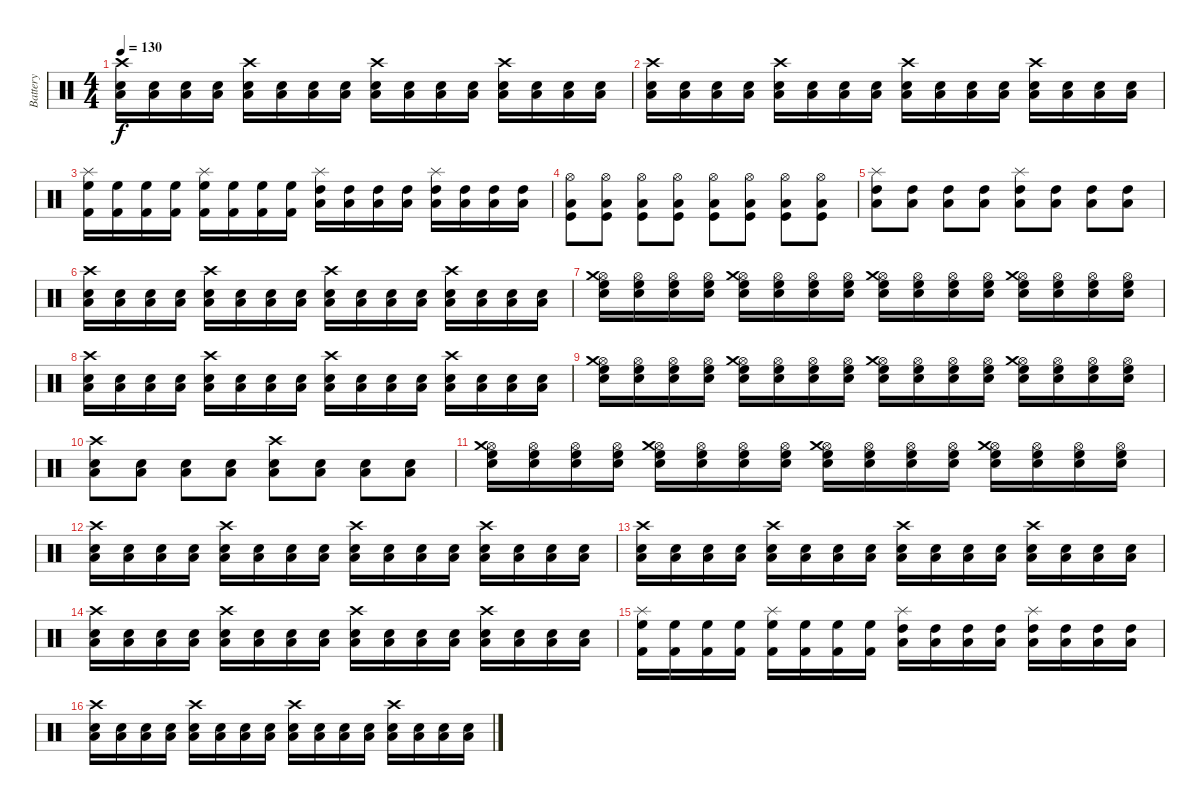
\track ("Battery" "Battery") {instrument percussion}
\staff {score}
\articulation defaults
\ts (4 4)
\tempo 130
\clef neutral
\ks c
("Low Floor Tom (hit)" "Electric Snare (hit)" "Crash high (hit)").16{dy f} ("Low Floor Tom (hit)" "Electric Snare (hit)").16 ("Low Floor Tom (hit)" "Electric Snare (hit)").16 ("Low Floor Tom (hit)" "Electric Snare (hit)").16 ("Low Floor Tom (hit)" "Electric Snare (hit)" "Crash high (hit)").16 ("Low Floor Tom (hit)" "Electric Snare (hit)").16 ("Low Floor Tom (hit)" "Electric Snare (hit)").16 ("Low Floor Tom (hit)" "Electric Snare (hit)").16 ("Snare (hit) 2" "Low Tom (hit)" "Crash high (hit)").16 ("Snare (hit) 2" "Low Tom (hit)").16 ("Snare (hit) 2" "Low Tom (hit)").16 ("Snare (hit) 2" "Low Tom (hit)").16 ("Snare (hit) 2" "Low Tom (hit)" "Crash high (hit)").16 ("Snare (hit) 2" "Low Tom (hit)").16 ("Snare (hit) 2" "Low Tom (hit)").16 ("Snare (hit) 2" "Low Tom (hit)").16 |
("Snare (hit) 2" "Low Tom (hit)" "Crash high (hit)").16 ("Snare (hit) 2" "Low Tom (hit)").16 ("Snare (hit) 2" "Low Tom (hit)").16 ("Snare (hit) 2" "Low Tom (hit)").16 ("Snare (hit) 2" "Low Tom (hit)" "Crash high (hit)").16 ("Snare (hit) 2" "Low Tom (hit)").16 ("Snare (hit) 2" "Low Tom (hit)").16 ("Snare (hit) 2" "Low Tom (hit)").16 ("Low Floor Tom (hit)" "Electric Snare (hit)" "Crash high (hit)").16 ("Low Floor Tom (hit)" "Electric Snare (hit)").16 ("Low Floor Tom (hit)" "Electric Snare (hit)").16 ("Low Floor Tom (hit)" "Electric Snare (hit)").16 ("Low Floor Tom (hit)" "Electric Snare (hit)" "Crash high (hit)").16 ("Low Floor Tom (hit)" "Electric Snare (hit)").16 ("Low Floor Tom (hit)" "Electric Snare (hit)").16 ("Low Floor Tom (hit)" "Electric Snare (hit)").16 |
("Kick (hit) 2" "High Floor Tom (hit)" "Splash (hit)").16 ("Kick (hit) 2" "High Floor Tom (hit)").16 ("Kick (hit) 2" "High Floor Tom (hit)").16 ("Kick (hit) 2" "High Floor Tom (hit)").16 ("Kick (hit) 2" "High Floor Tom (hit)" "Splash (hit)").16 ("Kick (hit) 2" "High Floor Tom (hit)").16 ("Kick (hit) 2" "High Floor Tom (hit)").16 ("Kick (hit) 2" "High Floor Tom (hit)").16 ("Low Floor Tom (hit)" "High Tom (hit)" "Splash (hit)").16 ("Low Floor Tom (hit)" "High Tom (hit)").16 ("Low Floor Tom (hit)" "High Tom (hit)").16 ("Low Floor Tom (hit)" "High Tom (hit)").16 ("Low Floor Tom (hit)" "High Tom (hit)" "Splash (hit)").16 ("Low Floor Tom (hit)" "High Tom (hit)").16 ("Low Floor Tom (hit)" "High Tom (hit)").16 ("Low Floor Tom (hit)" "High Tom (hit)").16 |
("Kick (hit)" "Low Tom (hit)" "Hi-Hat (open)").8 ("Kick (hit)" "Low Tom (hit)" "Hi-Hat (open)").8 ("Kick (hit)" "Low Tom (hit)" "Hi-Hat (open)").8 ("Kick (hit)" "Low Tom (hit)" "Hi-Hat (open)").8 ("Kick (hit)" "Low Tom (hit)" "Hi-Hat (open)").8 ("Kick (hit)" "Low Tom (hit)" "Hi-Hat (open)").8 ("Kick (hit)" "Low Tom (hit)" "Hi-Hat (open)").8 ("Kick (hit)" "Low Tom (hit)" "Hi-Hat (open)").8 |
("Low Floor Tom (hit)" "High Tom (hit)" "Splash (hit)").8 ("Low Floor Tom (hit)" "High Tom (hit)").8 ("Low Floor Tom (hit)" "High Tom (hit)").8 ("Low Floor Tom (hit)" "High Tom (hit)").8 ("Low Floor Tom (hit)" "High Tom (hit)" "Splash (hit)").8 ("Low Floor Tom (hit)" "High Tom (hit)").8 ("Low Floor Tom (hit)" "High Tom (hit)").8 ("Low Floor Tom (hit)" "High Tom (hit)").8 |
("Snare (hit) 2" "Low Tom (hit)" "Crash high (hit)").16 ("Snare (hit) 2" "Low Tom (hit)").16 ("Snare (hit) 2" "Low Tom (hit)").16 ("Snare (hit) 2" "Low Tom (hit)").16 ("Snare (hit) 2" "Low Tom (hit)" "Crash high (hit)").16 ("Snare (hit) 2" "Low Tom (hit)").16 ("Snare (hit) 2" "Low Tom (hit)").16 ("Snare (hit) 2" "Low Tom (hit)").16 ("Low Floor Tom (hit)" "Electric Snare (hit)" "Crash high (hit)").16 ("Low Floor Tom (hit)" "Electric Snare (hit)").16 ("Low Floor Tom (hit)" "Electric Snare (hit)").16 ("Low Floor Tom (hit)" "Electric Snare (hit)").16 ("Low Floor Tom (hit)" "Electric Snare (hit)" "Crash high (hit)").16 ("Low Floor Tom (hit)" "Electric Snare (hit)").16 ("Low Floor Tom (hit)" "Electric Snare (hit)").16 ("Low Floor Tom (hit)" "Electric Snare (hit)").16 |
("Electric Snare (hit)" "High Floor Tom (hit)" "Hi-Hat (open)" "Crash medium (hit)").16 ("Electric Snare (hit)" "High Floor Tom (hit)" "Hi-Hat (open)").16 ("Electric Snare (hit)" "High Floor Tom (hit)" "Hi-Hat (open)").16 ("Electric Snare (hit)" "High Floor Tom (hit)" "Hi-Hat (open)").16 ("Electric Snare (hit)" "High Floor Tom (hit)" "Hi-Hat (open)" "Crash medium (hit)").16 ("Electric Snare (hit)" "High Floor Tom (hit)" "Hi-Hat (open)").16 ("Electric Snare (hit)" "High Floor Tom (hit)" "Hi-Hat (open)").16 ("Electric Snare (hit)" "High Floor Tom (hit)" "Hi-Hat (open)").16 ("Electric Snare (hit)" "High Floor Tom (hit)" "Hi-Hat (open)" "Crash medium (hit)").16 ("Electric Snare (hit)" "High Floor Tom (hit)" "Hi-Hat (open)").16 ("Electric Snare (hit)" "High Floor Tom (hit)" "Hi-Hat (open)").16 ("Electric Snare (hit)" "High Floor Tom (hit)" "Hi-Hat (open)").16 ("Electric Snare (hit)" "High Floor Tom (hit)" "Hi-Hat (open)" "Crash medium (hit)").16 ("Electric Snare (hit)" "High Floor Tom (hit)" "Hi-Hat (open)").16 ("Electric Snare (hit)" "High Floor Tom (hit)" "Hi-Hat (open)").16 ("Electric Snare (hit)" "High Floor Tom (hit)" "Hi-Hat (open)").16 |
("Snare (hit) 2" "Low Tom (hit)" "Crash high (hit)").16 ("Snare (hit) 2" "Low Tom (hit)").16 ("Snare (hit) 2" "Low Tom (hit)").16 ("Snare (hit) 2" "Low Tom (hit)").16 ("Snare (hit) 2" "Low Tom (hit)" "Crash high (hit)").16 ("Snare (hit) 2" "Low Tom (hit)").16 ("Snare (hit) 2" "Low Tom (hit)").16 ("Snare (hit) 2" "Low Tom (hit)").16 ("Low Floor Tom (hit)" "Electric Snare (hit)" "Crash high (hit)").16 ("Low Floor Tom (hit)" "Electric Snare (hit)").16 ("Low Floor Tom (hit)" "Electric Snare (hit)").16 ("Low Floor Tom (hit)" "Electric Snare (hit)").16 ("Low Floor Tom (hit)" "Electric Snare (hit)" "Crash high (hit)").16 ("Low Floor Tom (hit)" "Electric Snare (hit)").16 ("Low Floor Tom (hit)" "Electric Snare (hit)").16 ("Low Floor Tom (hit)" "Electric Snare (hit)").16 |
("Electric Snare (hit)" "High Floor Tom (hit)" "Hi-Hat (open)" "Crash medium (hit)").16 ("Electric Snare (hit)" "High Floor Tom (hit)" "Hi-Hat (open)").16 ("Electric Snare (hit)" "High Floor Tom (hit)" "Hi-Hat (open)").16 ("Electric Snare (hit)" "High Floor Tom (hit)" "Hi-Hat (open)").16 ("Electric Snare (hit)" "High Floor Tom (hit)" "Hi-Hat (open)" "Crash medium (hit)").16 ("Electric Snare (hit)" "High Floor Tom (hit)" "Hi-Hat (open)").16 ("Electric Snare (hit)" "High Floor Tom (hit)" "Hi-Hat (open)").16 ("Electric Snare (hit)" "High Floor Tom (hit)" "Hi-Hat (open)").16 ("Electric Snare (hit)" "High Floor Tom (hit)" "Hi-Hat (open)" "Crash medium (hit)").16 ("Electric Snare (hit)" "High Floor Tom (hit)" "Hi-Hat (open)").16 ("Electric Snare (hit)" "High Floor Tom (hit)" "Hi-Hat (open)").16 ("Electric Snare (hit)" "High Floor Tom (hit)" "Hi-Hat (open)").16 ("Electric Snare (hit)" "High Floor Tom (hit)" "Hi-Hat (open)" "Crash medium (hit)").16 ("Electric Snare (hit)" "High Floor Tom (hit)" "Hi-Hat (open)").16 ("Electric Snare (hit)" "High Floor Tom (hit)" "Hi-Hat (open)").16 ("Electric Snare (hit)" "High Floor Tom (hit)" "Hi-Hat (open)").16 |
("Snare (hit) 2" "Low Floor Tom (hit)" "Crash high (hit)").8 ("Snare (hit) 2" "Low Floor Tom (hit)").8 ("Snare (hit) 2" "Low Floor Tom (hit)").8 ("Snare (hit) 2" "Low Floor Tom (hit)").8 ("Snare (hit) 2" "Low Tom (hit)" "Crash high (hit)").8 ("Snare (hit) 2" "Low Tom (hit)").8 ("Snare (hit) 2" "Low Tom (hit)").8 ("Snare (hit) 2" "Low Tom (hit)").8 |
("Electric Snare (hit)" "High Floor Tom (hit)" "Hi-Hat (open)" "Crash medium (hit)").16 ("Electric Snare (hit)" "High Floor Tom (hit)" "Hi-Hat (open)").16 ("Electric Snare (hit)" "High Floor Tom (hit)" "Hi-Hat (open)").16 ("Electric Snare (hit)" "High Floor Tom (hit)" "Hi-Hat (open)").16 ("Electric Snare (hit)" "High Floor Tom (hit)" "Hi-Hat (open)" "Crash medium (hit)").16 ("Electric Snare (hit)" "High Floor Tom (hit)" "Hi-Hat (open)").16 ("Electric Snare (hit)" "High Floor Tom (hit)" "Hi-Hat (open)").16 ("Electric Snare (hit)" "High Floor Tom (hit)" "Hi-Hat (open)").16 ("Electric Snare (hit)" "High Floor Tom (hit)" "Hi-Hat (open)" "Crash medium (hit)").16 ("Electric Snare (hit)" "High Floor Tom (hit)" "Hi-Hat (open)").16 ("Electric Snare (hit)" "High Floor Tom (hit)" "Hi-Hat (open)").16 ("Electric Snare (hit)" "High Floor Tom (hit)" "Hi-Hat (open)").16 ("Electric Snare (hit)" "High Floor Tom (hit)" "Hi-Hat (open)" "Crash medium (hit)").16 ("Electric Snare (hit)" "High Floor Tom (hit)" "Hi-Hat (open)").16 ("Electric Snare (hit)" "High Floor Tom (hit)" "Hi-Hat (open)").16 ("Electric Snare (hit)" "High Floor Tom (hit)" "Hi-Hat (open)").16 |
("Snare (hit) 2" "Low Tom (hit)" "Crash high (hit)").16 ("Snare (hit) 2" "Low Tom (hit)").16 ("Snare (hit) 2" "Low Tom (hit)").16 ("Snare (hit) 2" "Low Tom (hit)").16 ("Snare (hit) 2" "Low Tom (hit)" "Crash high (hit)").16 ("Snare (hit) 2" "Low Tom (hit)").16 ("Snare (hit) 2" "Low Tom (hit)").16 ("Snare (hit) 2" "Low Tom (hit)").16 ("Low Floor Tom (hit)" "Electric Snare (hit)" "Crash high (hit)").16 ("Low Floor Tom (hit)" "Electric Snare (hit)").16 ("Low Floor Tom (hit)" "Electric Snare (hit)").16 ("Low Floor Tom (hit)" "Electric Snare (hit)").16 ("Low Floor Tom (hit)" "Electric Snare (hit)" "Crash high (hit)").16 ("Low Floor Tom (hit)" "Electric Snare (hit)").16 ("Low Floor Tom (hit)" "Electric Snare (hit)").16 ("Low Floor Tom (hit)" "Electric Snare (hit)").16 |
("Low Floor Tom (hit)" "Electric Snare (hit)" "Crash high (hit)").16 ("Low Floor Tom (hit)" "Electric Snare (hit)").16 ("Low Floor Tom (hit)" "Electric Snare (hit)").16 ("Low Floor Tom (hit)" "Electric Snare (hit)").16 ("Low Floor Tom (hit)" "Electric Snare (hit)" "Crash high (hit)").16 ("Low Floor Tom (hit)" "Electric Snare (hit)").16 ("Low Floor Tom (hit)" "Electric Snare (hit)").16 ("Low Floor Tom (hit)" "Electric Snare (hit)").16 ("Snare (hit) 2" "Low Tom (hit)" "Crash high (hit)").16 ("Snare (hit) 2" "Low Tom (hit)").16 ("Snare (hit) 2" "Low Tom (hit)").16 ("Snare (hit) 2" "Low Tom (hit)").16 ("Snare (hit) 2" "Low Tom (hit)" "Crash high (hit)").16 ("Snare (hit) 2" "Low Tom (hit)").16 ("Snare (hit) 2" "Low Tom (hit)").16 ("Snare (hit) 2" "Low Tom (hit)").16 |
("Snare (hit) 2" "Low Tom (hit)" "Crash high (hit)").16 ("Snare (hit) 2" "Low Tom (hit)").16 ("Snare (hit) 2" "Low Tom (hit)").16 ("Snare (hit) 2" "Low Tom (hit)").16 ("Snare (hit) 2" "Low Tom (hit)" "Crash high (hit)").16 ("Snare (hit) 2" "Low Tom (hit)").16 ("Snare (hit) 2" "Low Tom (hit)").16 ("Snare (hit) 2" "Low Tom (hit)").16 ("Low Floor Tom (hit)" "Electric Snare (hit)" "Crash high (hit)").16 ("Low Floor Tom (hit)" "Electric Snare (hit)").16 ("Low Floor Tom (hit)" "Electric Snare (hit)").16 ("Low Floor Tom (hit)" "Electric Snare (hit)").16 ("Low Floor Tom (hit)" "Electric Snare (hit)" "Crash high (hit)").16 ("Low Floor Tom (hit)" "Electric Snare (hit)").16 ("Low Floor Tom (hit)" "Electric Snare (hit)").16 ("Low Floor Tom (hit)" "Electric Snare (hit)").16 |
("Kick (hit) 2" "High Floor Tom (hit)" "Splash (hit)").16 ("Kick (hit) 2" "High Floor Tom (hit)").16 ("Kick (hit) 2" "High Floor Tom (hit)").16 ("Kick (hit) 2" "High Floor Tom (hit)").16 ("Kick (hit) 2" "High Floor Tom (hit)" "Splash (hit)").16 ("Kick (hit) 2" "High Floor Tom (hit)").16 ("Kick (hit) 2" "High Floor Tom (hit)").16 ("Kick (hit) 2" "High Floor Tom (hit)").16 ("Low Floor Tom (hit)" "High Tom (hit)" "Splash (hit)").16 ("Low Floor Tom (hit)" "High Tom (hit)").16 ("Low Floor Tom (hit)" "High Tom (hit)").16 ("Low Floor Tom (hit)" "High Tom (hit)").16 ("Low Floor Tom (hit)" "High Tom (hit)" "Splash (hit)").16 ("Low Floor Tom (hit)" "High Tom (hit)").16 ("Low Floor Tom (hit)" "High Tom (hit)").16 ("Low Floor Tom (hit)" "High Tom (hit)").16 |
("Snare (hit) 2" "Low Tom (hit)" "Crash high (hit)").16 ("Snare (hit) 2" "Low Tom (hit)").16 ("Snare (hit) 2" "Low Tom (hit)").16 ("Snare (hit) 2" "Low Tom (hit)").16 ("Snare (hit) 2" "Low Tom (hit)" "Crash high (hit)").16 ("Snare (hit) 2" "Low Tom (hit)").16 ("Snare (hit) 2" "Low Tom (hit)").16 ("Snare (hit) 2" "Low Tom (hit)").16 ("Low Floor Tom (hit)" "Electric Snare (hit)" "Crash high (hit)").16 ("Low Floor Tom (hit)" "Electric Snare (hit)").16 ("Low Floor Tom (hit)" "Electric Snare (hit)").16 ("Low Floor Tom (hit)" "Electric Snare (hit)").16 ("Low Floor Tom (hit)" "Electric Snare (hit)" "Crash high (hit)").16 ("Low Floor Tom (hit)" "Electric Snare (hit)").16 ("Low Floor Tom (hit)" "Electric Snare (hit)").16 ("Low Floor Tom (hit)" "Electric Snare (hit)").16
